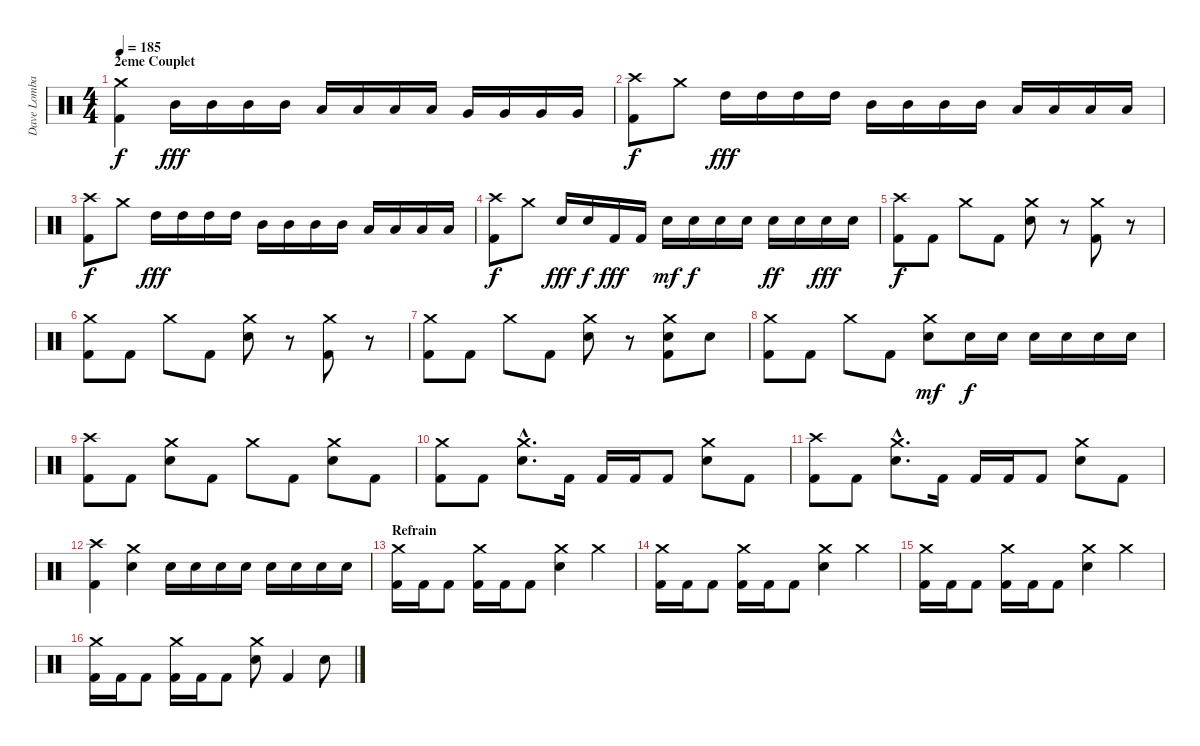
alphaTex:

\track ("Dave Lombardo - Drums" "Dave Lomba") {instrument percussion}
\staff {score}
\articulation defaults
\ts (4 4)
\section ("" "2eme Couplet")
\tempo 185
\clef neutral
\ks c
("Crash medium (hit)" "Kick (hit) 2").4{dy f} "Mid Tom (hit)".16{dy fff} "Mid Tom (hit)".16 "Mid Tom (hit)".16 "Mid Tom (hit)".16 "Low Tom (hit)".16 "Low Tom (hit)".16 "Low Tom (hit)".16 "Low Tom (hit)".16 "Very Low Tom (hit)".16 "Very Low Tom (hit)".16 "Very Low Tom (hit)".16 "Very Low Tom (hit)".16 |
("Crash high (hit)" "Kick (hit) 2").8{dy f} "Crash medium (hit)".8 "High Tom (hit)".16{dy fff} "High Tom (hit)".16 "High Tom (hit)".16 "High Tom (hit)".16 "Mid Tom (hit)".16 "Mid Tom (hit)".16 "Mid Tom (hit)".16 "Mid Tom (hit)".16 "Low Tom (hit)".16 "Low Tom (hit)".16 "Low Tom (hit)".16 "Low Tom (hit)".16 |
("Crash high (hit)" "Kick (hit) 2").8{dy f} "Crash medium (hit)".8 "High Tom (hit)".16{dy fff} "High Tom (hit)".16 "High Tom (hit)".16 "High Tom (hit)".16 "Mid Tom (hit)".16 "Mid Tom (hit)".16 "Mid Tom (hit)".16 "Mid Tom (hit)".16 "Low Tom (hit)".16 "Low Tom (hit)".16 "Low Tom (hit)".16 "Low Tom (hit)".16 |
("Crash high (hit)" "Kick (hit) 2").8{dy f} "Crash medium (hit)".8 "Electric Snare (hit)".16{dy fff} "Electric Snare (hit)".16{dy f} "Kick (hit) 2".16{dy fff} "Kick (hit) 2".16 "Electric Snare (hit)".16{dy mf} "Electric Snare (hit)".16{dy f} "Electric Snare (hit)".16 "Electric Snare (hit)".16 "Electric Snare (hit)".16{dy ff} "Electric Snare (hit)".16 "Electric Snare (hit)".16{dy fff} "Electric Snare (hit)".16 |
("Crash high (hit)" "Kick (hit) 2").8{dy f} "Kick (hit) 2".8 "Crash medium (hit)".8 "Kick (hit) 2".8 ("Crash medium (hit)" "Electric Snare (hit)").8 r.8 ("Crash medium (hit)" "Kick (hit) 2").8 r.8 |
("Crash medium (hit)" "Kick (hit) 2").8 "Kick (hit) 2".8 "Crash medium (hit)".8 "Kick (hit) 2".8 ("Crash medium (hit)" "Electric Snare (hit)").8 r.8 ("Crash medium (hit)" "Kick (hit) 2").8 r.8 |
("Crash medium (hit)" "Kick (hit) 2").8 "Kick (hit) 2".8 "Crash medium (hit)".8 "Kick (hit) 2".8 ("Crash medium (hit)" "Electric Snare (hit)").8 r.8 ("Crash medium (hit)" "Electric Snare (hit)" "Kick (hit) 2").8 "Electric Snare (hit)".8 |
("Crash medium (hit)" "Kick (hit) 2").8 "Kick (hit) 2".8 "Crash medium (hit)".8 "Kick (hit) 2".8 ("Crash medium (hit)" "Electric Snare (hit)").8{dy mf} "Electric Snare (hit)".16{dy f} "Electric Snare (hit)".16 "Electric Snare (hit)".16 "Electric Snare (hit)".16 "Electric Snare (hit)".16 "Electric Snare (hit)".16 |
("Crash high (hit)" "Kick (hit) 2").8 "Kick (hit) 2".8 ("Crash medium (hit)" "Electric Snare (hit)").8 "Kick (hit) 2".8 "Crash medium (hit)".8 "Kick (hit) 2".8 ("Crash medium (hit)" "Electric Snare (hit)").8 "Kick (hit) 2".8 |
("Crash medium (hit)" "Kick (hit) 2").8 "Kick (hit) 2".8 ("Crash medium (hit)"{hac} "Electric Snare (hit)"{hac}).8{d} "Kick (hit) 2".16 "Kick (hit) 2".16 "Kick (hit) 2".16 "Kick (hit) 2".8 ("Crash medium (hit)" "Electric Snare (hit)").8 "Kick (hit) 2".8 |
("Crash high (hit)" "Kick (hit) 2").8 "Kick (hit) 2".8 ("Crash medium (hit)"{hac} "Electric Snare (hit)"{hac}).8{d} "Kick (hit) 2".16 "Kick (hit) 2".16 "Kick (hit) 2".16 "Kick (hit) 2".8 ("Crash medium (hit)" "Electric Snare (hit)").8 "Kick (hit) 2".8 |
("Crash high (hit)" "Kick (hit) 2").4 ("Crash medium (hit)" "Electric Snare (hit)").4 "Electric Snare (hit)".16 "Electric Snare (hit)".16 "Electric Snare (hit)".16 "Electric Snare (hit)".16 "Electric Snare (hit)".16 "Electric Snare (hit)".16 "Electric Snare (hit)".16 "Electric Snare (hit)".16 |
\section ("" "Refrain")
("Crash medium (hit)" "Kick (hit) 2").16 "Kick (hit) 2".16 "Kick (hit) 2".8 ("Crash medium (hit)" "Kick (hit) 2").16 "Kick (hit) 2".16 "Kick (hit) 2".8 ("Crash medium (hit)" "Electric Snare (hit)").4 "Crash medium (hit)".4 |
("Crash medium (hit)" "Kick (hit) 2").16 "Kick (hit) 2".16 "Kick (hit) 2".8 ("Crash medium (hit)" "Kick (hit) 2").16 "Kick (hit) 2".16 "Kick (hit) 2".8 ("Crash medium (hit)" "Electric Snare (hit)").4 "Crash medium (hit)".4 |
("Crash medium (hit)" "Kick (hit) 2").16 "Kick (hit) 2".16 "Kick (hit) 2".8 ("Crash medium (hit)" "Kick (hit) 2").16 "Kick (hit) 2".16 "Kick (hit) 2".8 ("Crash medium (hit)" "Electric Snare (hit)").4 "Crash medium (hit)".4 |
("Crash medium (hit)" "Kick (hit) 2").16 "Kick (hit) 2".16 "Kick (hit) 2".8 ("Crash medium (hit)" "Kick (hit) 2").16 "Kick (hit) 2".16 "Kick (hit) 2".8 ("Crash medium (hit)" "Electric Snare (hit)").8 "Kick (hit) 2".4 "Electric Snare (hit)".8
